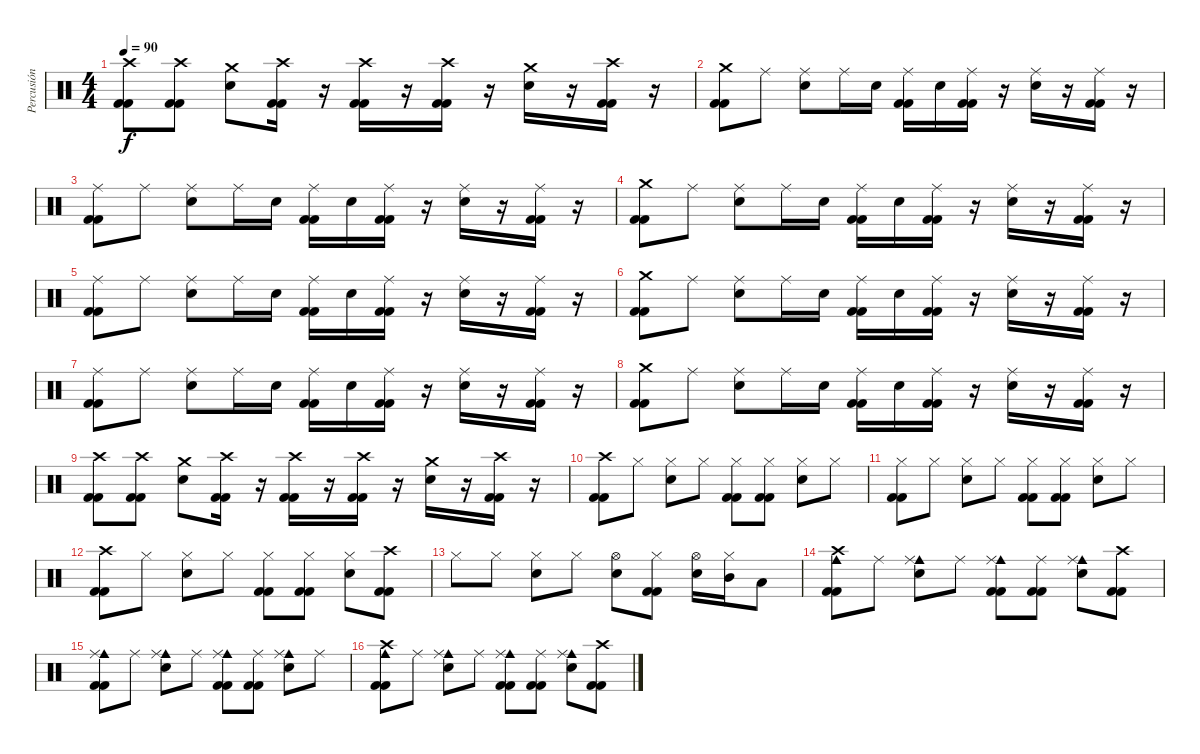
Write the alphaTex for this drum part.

\track ("Percusión" "Percusión") {instrument percussion}
\staff {score}
\articulation defaults
\ts (4 4)
\tempo 90
\clef neutral
\ks c
("Kick (hit) 2" "Crash high (hit)" "Kick (hit) 2").8{dy f} ("Kick (hit) 2" "Crash high (hit)" "Kick (hit) 2").8 ("Electric Snare (hit)" "Crash medium (hit)").8 ("Kick (hit) 2" "Crash high (hit)" "Kick (hit) 2").16 r.16 ("Kick (hit) 2" "Crash high (hit)" "Kick (hit) 2").16 r.16 ("Kick (hit) 2" "Crash high (hit)" "Kick (hit) 2").16 r.16 ("Electric Snare (hit)" "Crash medium (hit)").16 r.16 ("Kick (hit) 2" "Crash high (hit)" "Kick (hit) 2").16 r.16 |
("Kick (hit) 2" "Crash medium (hit)" "Kick (hit) 2").8 "Ride (middle)".8 ("Electric Snare (hit)" "Ride (middle)").8 "Ride (middle)".16 "Electric Snare (hit)".16 ("Kick (hit) 2" "Ride (middle)" "Kick (hit) 2").16 "Electric Snare (hit)".16 ("Kick (hit) 2" "Ride (middle)" "Kick (hit) 2").16 r.16 ("Electric Snare (hit)" "Ride (middle)").16 r.16 ("Kick (hit) 2" "Ride (middle)" "Kick (hit) 2").16 r.16 |
("Kick (hit) 2" "Ride (middle)" "Kick (hit) 2").8 "Ride (middle)".8 ("Electric Snare (hit)" "Ride (middle)").8 "Ride (middle)".16 "Electric Snare (hit)".16 ("Kick (hit) 2" "Ride (middle)" "Kick (hit) 2").16 "Electric Snare (hit)".16 ("Kick (hit) 2" "Ride (middle)" "Kick (hit) 2").16 r.16 ("Electric Snare (hit)" "Ride (middle)").16 r.16 ("Kick (hit) 2" "Ride (middle)" "Kick (hit) 2").16 r.16 |
("Kick (hit) 2" "Crash medium (hit)" "Kick (hit) 2").8 "Ride (middle)".8 ("Electric Snare (hit)" "Ride (middle)").8 "Ride (middle)".16 "Electric Snare (hit)".16 ("Kick (hit) 2" "Ride (middle)" "Kick (hit) 2").16 "Electric Snare (hit)".16 ("Kick (hit) 2" "Ride (middle)" "Kick (hit) 2").16 r.16 ("Electric Snare (hit)" "Ride (middle)").16 r.16 ("Kick (hit) 2" "Ride (middle)" "Kick (hit) 2").16 r.16 |
("Kick (hit) 2" "Ride (middle)" "Kick (hit) 2").8 "Ride (middle)".8 ("Electric Snare (hit)" "Ride (middle)").8 "Ride (middle)".16 "Electric Snare (hit)".16 ("Kick (hit) 2" "Ride (middle)" "Kick (hit) 2").16 "Electric Snare (hit)".16 ("Kick (hit) 2" "Ride (middle)" "Kick (hit) 2").16 r.16 ("Electric Snare (hit)" "Ride (middle)").16 r.16 ("Kick (hit) 2" "Ride (middle)" "Kick (hit) 2").16 r.16 |
("Kick (hit) 2" "Crash medium (hit)" "Kick (hit) 2").8 "Ride (middle)".8 ("Electric Snare (hit)" "Ride (middle)").8 "Ride (middle)".16 "Electric Snare (hit)".16 ("Kick (hit) 2" "Ride (middle)" "Kick (hit) 2").16 "Electric Snare (hit)".16 ("Kick (hit) 2" "Ride (middle)" "Kick (hit) 2").16 r.16 ("Electric Snare (hit)" "Ride (middle)").16 r.16 ("Kick (hit) 2" "Ride (middle)" "Kick (hit) 2").16 r.16 |
("Kick (hit) 2" "Ride (middle)" "Kick (hit) 2").8 "Ride (middle)".8 ("Electric Snare (hit)" "Ride (middle)").8 "Ride (middle)".16 "Electric Snare (hit)".16 ("Kick (hit) 2" "Ride (middle)" "Kick (hit) 2").16 "Electric Snare (hit)".16 ("Kick (hit) 2" "Ride (middle)" "Kick (hit) 2").16 r.16 ("Electric Snare (hit)" "Ride (middle)").16 r.16 ("Kick (hit) 2" "Ride (middle)" "Kick (hit) 2").16 r.16 |
("Kick (hit) 2" "Crash medium (hit)" "Kick (hit) 2").8 "Ride (middle)".8 ("Electric Snare (hit)" "Ride (middle)").8 "Ride (middle)".16 "Electric Snare (hit)".16 ("Kick (hit) 2" "Ride (middle)" "Kick (hit) 2").16 "Electric Snare (hit)".16 ("Kick (hit) 2" "Ride (middle)" "Kick (hit) 2").16 r.16 ("Electric Snare (hit)" "Ride (middle)").16 r.16 ("Kick (hit) 2" "Ride (middle)" "Kick (hit) 2").16 r.16 |
("Kick (hit) 2" "Crash high (hit)" "Kick (hit) 2").8 ("Kick (hit) 2" "Crash high (hit)" "Kick (hit) 2").8 ("Electric Snare (hit)" "Crash medium (hit)").8 ("Kick (hit) 2" "Crash high (hit)" "Kick (hit) 2").16 r.16 ("Kick (hit) 2" "Crash high (hit)" "Kick (hit) 2").16 r.16 ("Kick (hit) 2" "Crash high (hit)" "Kick (hit) 2").16 r.16 ("Electric Snare (hit)" "Crash medium (hit)").16 r.16 ("Kick (hit) 2" "Crash high (hit)" "Kick (hit) 2").16 r.16 |
("Kick (hit) 2" "Crash high (hit)" "Kick (hit) 2").8 "Hi-Hat (closed)".8 ("Electric Snare (hit)" "Hi-Hat (closed)").8 "Hi-Hat (closed)".8 ("Kick (hit) 2" "Hi-Hat (closed)" "Kick (hit) 2").8 ("Kick (hit) 2" "Hi-Hat (closed)" "Kick (hit) 2").8 ("Electric Snare (hit)" "Hi-Hat (closed)").8 "Hi-Hat (closed)".8 |
("Kick (hit) 2" "Hi-Hat (closed)" "Kick (hit) 2").8 "Hi-Hat (closed)".8 ("Electric Snare (hit)" "Hi-Hat (closed)").8 "Hi-Hat (closed)".8 ("Kick (hit) 2" "Hi-Hat (closed)" "Kick (hit) 2").8 ("Kick (hit) 2" "Hi-Hat (closed)" "Kick (hit) 2").8 ("Electric Snare (hit)" "Hi-Hat (closed)").8 "Hi-Hat (closed)".8 |
("Kick (hit) 2" "Crash high (hit)" "Kick (hit) 2").8 "Hi-Hat (closed)".8 ("Electric Snare (hit)" "Hi-Hat (closed)").8 "Hi-Hat (closed)".8 ("Kick (hit) 2" "Hi-Hat (closed)" "Kick (hit) 2").8 ("Kick (hit) 2" "Hi-Hat (closed)" "Kick (hit) 2").8 ("Electric Snare (hit)" "Hi-Hat (closed)").8 ("Kick (hit) 2" "Crash high (hit)" "Kick (hit) 2").8 |
"Hi-Hat (closed)".8 "Hi-Hat (closed)".8 ("Electric Snare (hit)" "Hi-Hat (closed)").8 "Hi-Hat (closed)".8 ("Electric Snare (hit)" "Hi-Hat (open)").8 ("Kick (hit) 2" "Hi-Hat (closed)" "Kick (hit) 2").8 ("Electric Snare (hit)" "Hi-Hat (open)").16 ("Mid Tom (hit)" "Hi-Hat (closed)").16 "Low Tom (hit)".8 |
("Kick (hit) 2" "Cowbell medium (hit)" "Crash high (hit)" "Kick (hit) 2").8 "Ride (middle)".8 ("Electric Snare (hit)" "Cowbell medium (hit)" "Ride (middle)").8 "Ride (middle)".8 ("Kick (hit) 2" "Cowbell medium (hit)" "Ride (middle)" "Kick (hit) 2").8 ("Kick (hit) 2" "Ride (middle)" "Kick (hit) 2").8 ("Electric Snare (hit)" "Cowbell medium (hit)" "Ride (middle)").8 ("Kick (hit) 2" "Crash high (hit)" "Kick (hit) 2").8 |
("Kick (hit) 2" "Cowbell medium (hit)" "Ride (middle)" "Kick (hit) 2").8 "Ride (middle)".8 ("Electric Snare (hit)" "Cowbell medium (hit)" "Ride (middle)").8 "Ride (middle)".8 ("Kick (hit) 2" "Cowbell medium (hit)" "Ride (middle)" "Kick (hit) 2").8 ("Kick (hit) 2" "Ride (middle)" "Kick (hit) 2").8 ("Electric Snare (hit)" "Cowbell medium (hit)" "Ride (middle)").8 "Ride (middle)".8 |
("Kick (hit) 2" "Cowbell medium (hit)" "Crash high (hit)" "Kick (hit) 2").8 "Ride (middle)".8 ("Electric Snare (hit)" "Cowbell medium (hit)" "Ride (middle)").8 "Ride (middle)".8 ("Kick (hit) 2" "Cowbell medium (hit)" "Ride (middle)" "Kick (hit) 2").8 ("Kick (hit) 2" "Ride (middle)" "Kick (hit) 2").8 ("Electric Snare (hit)" "Cowbell medium (hit)" "Ride (middle)").8 ("Kick (hit) 2" "Crash high (hit)" "Kick (hit) 2").8
